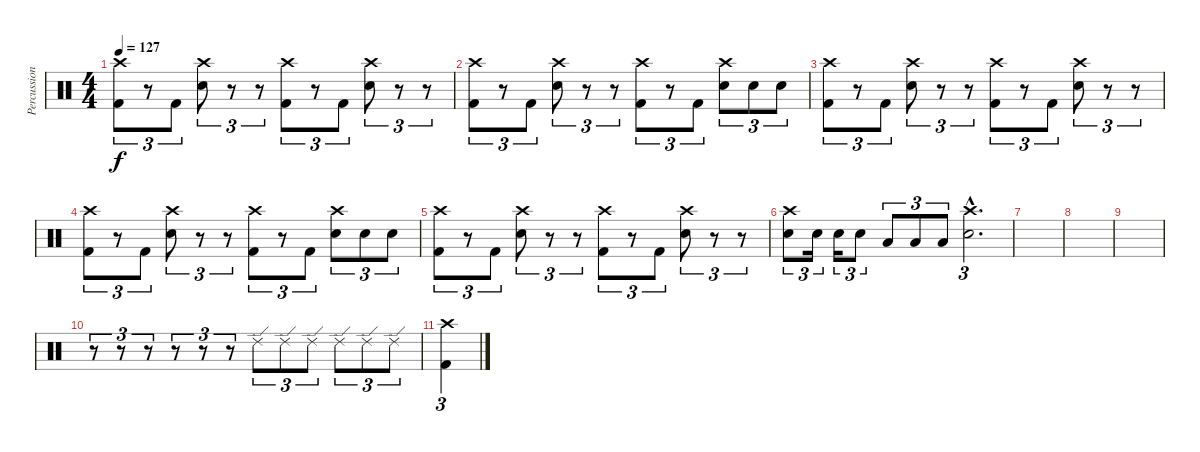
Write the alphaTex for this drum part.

\track ("Percussion" "Percussion") {instrument percussion}
\staff {score}
\articulation defaults
\ts (4 4)
\tempo 127
\clef neutral
\ks c
("Crash high (hit)" "Kick (hit) 2").8{tu (3 2) dy f} r.8{tu (3 2)} "Kick (hit) 2".8{tu (3 2)} ("Crash high (hit)" "Electric Snare (hit)").8{tu (3 2)} r.8{tu (3 2)} r.8{tu (3 2)} ("Crash high (hit)" "Kick (hit) 2").8{tu (3 2)} r.8{tu (3 2)} "Kick (hit) 2".8{tu (3 2)} ("Crash high (hit)" "Electric Snare (hit)").8{tu (3 2)} r.8{tu (3 2)} r.8{tu (3 2)} |
("Crash high (hit)" "Kick (hit) 2").8{tu (3 2)} r.8{tu (3 2)} "Kick (hit) 2".8{tu (3 2)} ("Crash high (hit)" "Electric Snare (hit)").8{tu (3 2)} r.8{tu (3 2)} r.8{tu (3 2)} ("Crash high (hit)" "Kick (hit) 2").8{tu (3 2)} r.8{tu (3 2)} "Kick (hit) 2".8{tu (3 2)} ("Crash high (hit)" "Electric Snare (hit)").8{tu (3 2)} "Electric Snare (hit)".8{tu (3 2)} "Electric Snare (hit)".8{tu (3 2)} |
("Crash high (hit)" "Kick (hit) 2").8{tu (3 2)} r.8{tu (3 2)} "Kick (hit) 2".8{tu (3 2)} ("Crash high (hit)" "Electric Snare (hit)").8{tu (3 2)} r.8{tu (3 2)} r.8{tu (3 2)} ("Crash high (hit)" "Kick (hit) 2").8{tu (3 2)} r.8{tu (3 2)} "Kick (hit) 2".8{tu (3 2)} ("Crash high (hit)" "Electric Snare (hit)").8{tu (3 2)} r.8{tu (3 2)} r.8{tu (3 2)} |
("Crash high (hit)" "Kick (hit) 2").8{tu (3 2)} r.8{tu (3 2)} "Kick (hit) 2".8{tu (3 2)} ("Crash high (hit)" "Electric Snare (hit)").8{tu (3 2)} r.8{tu (3 2)} r.8{tu (3 2)} ("Crash high (hit)" "Kick (hit) 2").8{tu (3 2)} r.8{tu (3 2)} "Kick (hit) 2".8{tu (3 2)} ("Crash high (hit)" "Electric Snare (hit)").8{tu (3 2)} "Electric Snare (hit)".8{tu (3 2)} "Electric Snare (hit)".8{tu (3 2)} |
("Crash high (hit)" "Kick (hit) 2").8{tu (3 2)} r.8{tu (3 2)} "Kick (hit) 2".8{tu (3 2)} ("Crash high (hit)" "Electric Snare (hit)").8{tu (3 2)} r.8{tu (3 2)} r.8{tu (3 2)} ("Crash high (hit)" "Kick (hit) 2").8{tu (3 2)} r.8{tu (3 2)} "Kick (hit) 2".8{tu (3 2)} ("Crash high (hit)" "Electric Snare (hit)").8{tu (3 2)} r.8{tu (3 2)} r.8{tu (3 2)} |
("Crash high (hit)" "Electric Snare (hit)").8{tu (3 2)} "Electric Snare (hit)".16{tu (3 2)} "Electric Snare (hit)".16{tu (3 2)} "Electric Snare (hit)".8{tu (3 2)} "Low Tom (hit)".8{tu (3 2)} "Low Tom (hit)".8{tu (3 2)} "Low Tom (hit)".8{tu (3 2)} ("Crash high (hit)"{hac} "Electric Snare (hit)"{hac}).2{d tu (3 2)} |
|
|
|
r.8{tu (3 2)} r.8{tu (3 2)} r.8{tu (3 2)} r.8{tu (3 2)} r.8{tu (3 2)} r.8{tu (3 2)} "Ride (edge) 2".8{tu (3 2)} "Ride (edge) 2".8{tu (3 2)} "Ride (edge) 2".8{tu (3 2)} "Ride (edge) 2".8{tu (3 2)} "Ride (edge) 2".8{tu (3 2)} "Ride (edge) 2".8{tu (3 2)} |
("Crash high (hit)" "Kick (hit) 2").4{tu (3 2) volume 13}
